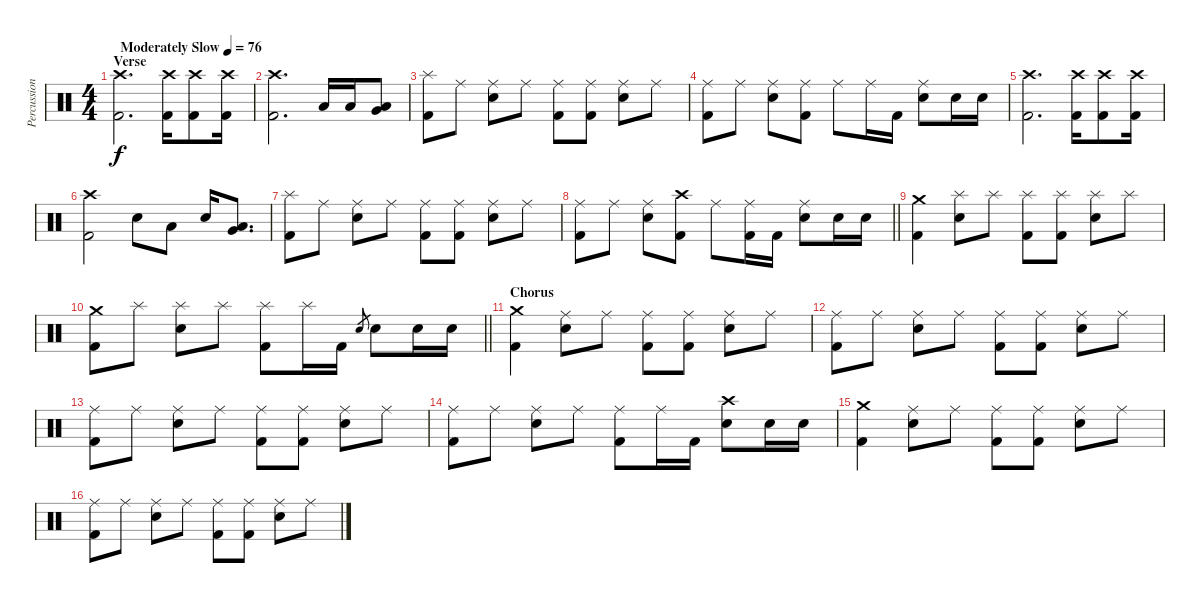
\track ("Percussion" "Percussion") {instrument percussion}
\staff {score}
\articulation defaults
\ts (4 4)
\section ("" "Verse")
\tempo (76 "Moderately Slow")
\clef neutral
\ks c
("Crash high (hit)" "Kick (hit) 2").2{d dy f} ("Crash high (hit)" "Kick (hit) 2").16 ("Crash high (hit)" "Kick (hit) 2").8 ("Crash high (hit)" "Kick (hit) 2").16 |
("Crash high (hit)" "Kick (hit) 2").2{d} "Low Tom (hit)".16 "Low Tom (hit)".16 ("Very Low Tom (hit)" "Low Floor Tom (hit)").8 |
("Splash (hit)" "Kick (hit) 2").8 "Ride (middle)".8 ("Ride (middle)" "Electric Snare (hit)").8 "Ride (middle)".8 ("Ride (middle)" "Kick (hit) 2").8 ("Ride (middle)" "Kick (hit) 2").8 ("Ride (middle)" "Electric Snare (hit)").8 "Ride (middle)".8 |
("Ride (middle)" "Kick (hit) 2").8 "Ride (middle)".8 ("Ride (middle)" "Electric Snare (hit)").8 ("Ride (middle)" "Kick (hit) 2").8 "Ride (middle)".8 "Ride (middle)".16 "Kick (hit) 2".16 ("Ride (middle)" "Electric Snare (hit)").8 "Electric Snare (hit)".16 "Electric Snare (hit)".16 |
("Crash high (hit)" "Kick (hit) 2").2{d} ("Crash high (hit)" "Kick (hit) 2").16 ("Crash high (hit)" "Kick (hit) 2").8 ("Crash high (hit)" "Kick (hit) 2").16 |
("Crash high (hit)" "Kick (hit) 2").2 "Electric Snare (hit)".8 "Low Tom (hit)".8 "Electric Snare (hit)".16 ("Low Tom (hit)" "Very Low Tom (hit)").8{d} |
("Splash (hit)" "Kick (hit) 2").8 "Ride (middle)".8 ("Ride (middle)" "Electric Snare (hit)").8 "Ride (middle)".8 ("Ride (middle)" "Kick (hit) 2").8 ("Ride (middle)" "Kick (hit) 2").8 ("Ride (middle)" "Electric Snare (hit)").8 "Ride (middle)".8 |
\barLineRight lightlight
("Ride (middle)" "Kick (hit) 2").8 "Ride (middle)".8 ("Ride (middle)" "Electric Snare (hit)").8 ("Crash high (hit)" "Kick (hit) 2").8 "Ride (middle)".8 ("Ride (middle)" "Kick (hit) 2").16 "Kick (hit) 2".16 ("Ride (middle)" "Electric Snare (hit)").8 "Electric Snare (hit)".16 "Electric Snare (hit)".16 |
("Crash medium (hit)" "Kick (hit) 2").4 ("Splash (hit)" "Electric Snare (hit)").8 "Splash (hit)".8 ("Splash (hit)" "Kick (hit) 2").8 ("Splash (hit)" "Kick (hit) 2").8 ("Splash (hit)" "Electric Snare (hit)").8 "Splash (hit)".8 |
\barLineRight lightlight
("Crash medium (hit)" "Kick (hit) 2").8 "Splash (hit)".8 ("Splash (hit)" "Electric Snare (hit)").8 "Splash (hit)".8 ("Splash (hit)" "Kick (hit) 2").8 "Splash (hit)".16 "Kick (hit) 2".16 "Electric Snare (hit)".8{gr} "Electric Snare (hit)".8 "Electric Snare (hit)".16 "Electric Snare (hit)".16 |
\section ("" "Chorus")
("Crash medium (hit)" "Kick (hit) 2").4 ("Ride (middle)" "Electric Snare (hit)").8 "Ride (middle)".8 ("Ride (middle)" "Kick (hit) 2").8 ("Ride (middle)" "Kick (hit) 2").8 ("Ride (middle)" "Electric Snare (hit)").8 "Ride (middle)".8 |
("Ride (middle)" "Kick (hit) 2").8 "Ride (middle)".8 ("Ride (middle)" "Electric Snare (hit)").8 "Ride (middle)".8 ("Ride (middle)" "Kick (hit) 2").8 ("Ride (middle)" "Kick (hit) 2").8 ("Ride (middle)" "Electric Snare (hit)").8 "Ride (middle)".8 |
("Ride (middle)" "Kick (hit) 2").8 "Ride (middle)".8 ("Ride (middle)" "Electric Snare (hit)").8 "Ride (middle)".8 ("Ride (middle)" "Kick (hit) 2").8 ("Ride (middle)" "Kick (hit) 2").8 ("Ride (middle)" "Electric Snare (hit)").8 "Ride (middle)".8 |
("Ride (middle)" "Kick (hit) 2").8 "Ride (middle)".8 ("Ride (middle)" "Electric Snare (hit)").8 "Ride (middle)".8 ("Ride (middle)" "Kick (hit) 2").8 "Ride (middle)".16 "Kick (hit) 2".16 ("Crash high (hit)" "Electric Snare (hit)").8 "Electric Snare (hit)".16 "Electric Snare (hit)".16 |
("Crash medium (hit)" "Kick (hit) 2").4 ("Ride (middle)" "Electric Snare (hit)").8 "Ride (middle)".8 ("Ride (middle)" "Kick (hit) 2").8 ("Ride (middle)" "Kick (hit) 2").8 ("Ride (middle)" "Electric Snare (hit)").8 "Ride (middle)".8 |
("Ride (middle)" "Kick (hit) 2").8 "Ride (middle)".8 ("Ride (middle)" "Electric Snare (hit)").8 "Ride (middle)".8 ("Ride (middle)" "Kick (hit) 2").8 ("Ride (middle)" "Kick (hit) 2").8 ("Ride (middle)" "Electric Snare (hit)").8 "Ride (middle)".8
